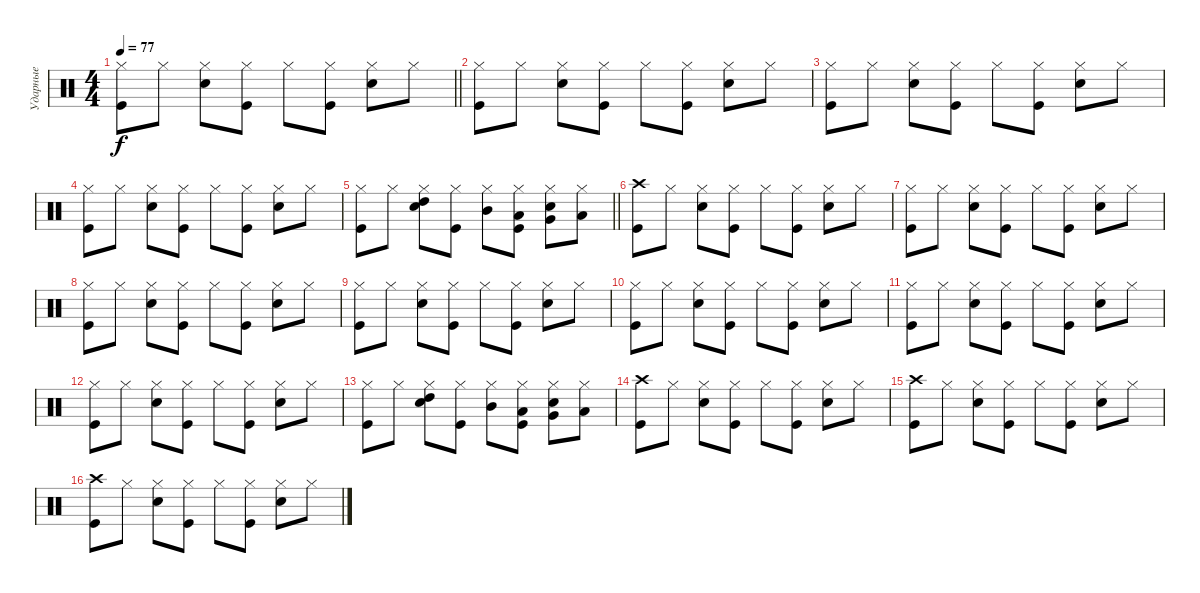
\track ("Ударные" "Ударные") {solo instrument percussion}
\staff {score}
\articulation defaults
\ts (4 4)
\tempo 77
\clef neutral
\barLineRight lightlight
\ks c
("Kick (hit)" "Hi-Hat (closed)").8{dy f} "Hi-Hat (closed)".8 ("Snare (hit) 2" "Hi-Hat (closed)").8 ("Kick (hit)" "Hi-Hat (closed)").8 "Hi-Hat (closed)".8 ("Kick (hit)" "Hi-Hat (closed)").8 ("Snare (hit) 2" "Hi-Hat (closed)").8 "Hi-Hat (closed)".8 |
("Kick (hit)" "Hi-Hat (closed)").8 "Hi-Hat (closed)".8 ("Snare (hit) 2" "Hi-Hat (closed)").8 ("Kick (hit)" "Hi-Hat (closed)").8 "Hi-Hat (closed)".8 ("Kick (hit)" "Hi-Hat (closed)").8 ("Snare (hit) 2" "Hi-Hat (closed)").8 "Hi-Hat (closed)".8 |
("Kick (hit)" "Hi-Hat (closed)").8 "Hi-Hat (closed)".8 ("Snare (hit) 2" "Hi-Hat (closed)").8 ("Kick (hit)" "Hi-Hat (closed)").8 "Hi-Hat (closed)".8 ("Kick (hit)" "Hi-Hat (closed)").8 ("Snare (hit) 2" "Hi-Hat (closed)").8 "Hi-Hat (closed)".8 |
("Kick (hit)" "Hi-Hat (closed)").8 "Hi-Hat (closed)".8 ("Snare (hit) 2" "Hi-Hat (closed)").8 ("Kick (hit)" "Hi-Hat (closed)").8 "Hi-Hat (closed)".8 ("Kick (hit)" "Hi-Hat (closed)").8 ("Snare (hit) 2" "Hi-Hat (closed)").8 "Hi-Hat (closed)".8 |
\barLineRight lightlight
("Kick (hit)" "Hi-Hat (closed)").8 "Hi-Hat (closed)".8 ("Snare (hit) 2" "High Tom (hit)" "Hi-Hat (closed)").8 ("Kick (hit)" "Hi-Hat (closed)").8 ("Mid Tom (hit)" "Hi-Hat (closed)").8 ("Kick (hit)" "Low Tom (hit)" "Hi-Hat (closed)").8 ("Snare (hit) 2" "Very Low Tom (hit)" "Hi-Hat (closed)").8 ("Low Floor Tom (hit)" "Hi-Hat (closed)").8 |
("Kick (hit)" "Crash high (hit)").8 "Hi-Hat (closed)".8 ("Snare (hit) 2" "Hi-Hat (closed)").8 ("Kick (hit)" "Hi-Hat (closed)").8 "Hi-Hat (closed)".8 ("Kick (hit)" "Hi-Hat (closed)").8 ("Snare (hit) 2" "Hi-Hat (closed)").8 "Hi-Hat (closed)".8 |
("Kick (hit)" "Hi-Hat (closed)").8 "Hi-Hat (closed)".8 ("Snare (hit) 2" "Hi-Hat (closed)").8 ("Kick (hit)" "Hi-Hat (closed)").8 "Hi-Hat (closed)".8 ("Kick (hit)" "Hi-Hat (closed)").8 ("Snare (hit) 2" "Hi-Hat (closed)").8 "Hi-Hat (closed)".8 |
("Kick (hit)" "Hi-Hat (closed)").8 "Hi-Hat (closed)".8 ("Snare (hit) 2" "Hi-Hat (closed)").8 ("Kick (hit)" "Hi-Hat (closed)").8 "Hi-Hat (closed)".8 ("Kick (hit)" "Hi-Hat (closed)").8 ("Snare (hit) 2" "Hi-Hat (closed)").8 "Hi-Hat (closed)".8 |
("Kick (hit)" "Hi-Hat (closed)").8 "Hi-Hat (closed)".8 ("Snare (hit) 2" "Hi-Hat (closed)").8 ("Kick (hit)" "Hi-Hat (closed)").8 "Hi-Hat (closed)".8 ("Kick (hit)" "Hi-Hat (closed)").8 ("Snare (hit) 2" "Hi-Hat (closed)").8 "Hi-Hat (closed)".8 |
("Kick (hit)" "Hi-Hat (closed)").8 "Hi-Hat (closed)".8 ("Snare (hit) 2" "Hi-Hat (closed)").8 ("Kick (hit)" "Hi-Hat (closed)").8 "Hi-Hat (closed)".8 ("Kick (hit)" "Hi-Hat (closed)").8 ("Snare (hit) 2" "Hi-Hat (closed)").8 "Hi-Hat (closed)".8 |
("Kick (hit)" "Hi-Hat (closed)").8 "Hi-Hat (closed)".8 ("Snare (hit) 2" "Hi-Hat (closed)").8 ("Kick (hit)" "Hi-Hat (closed)").8 "Hi-Hat (closed)".8 ("Kick (hit)" "Hi-Hat (closed)").8 ("Snare (hit) 2" "Hi-Hat (closed)").8 "Hi-Hat (closed)".8 |
("Kick (hit)" "Hi-Hat (closed)").8 "Hi-Hat (closed)".8 ("Snare (hit) 2" "Hi-Hat (closed)").8 ("Kick (hit)" "Hi-Hat (closed)").8 "Hi-Hat (closed)".8 ("Kick (hit)" "Hi-Hat (closed)").8 ("Snare (hit) 2" "Hi-Hat (closed)").8 "Hi-Hat (closed)".8 |
("Kick (hit)" "Hi-Hat (closed)").8 "Hi-Hat (closed)".8 ("Snare (hit) 2" "High Tom (hit)" "Hi-Hat (closed)").8 ("Kick (hit)" "Hi-Hat (closed)").8 ("Mid Tom (hit)" "Hi-Hat (closed)").8 ("Kick (hit)" "Low Tom (hit)" "Hi-Hat (closed)").8 ("Snare (hit) 2" "Very Low Tom (hit)" "Hi-Hat (closed)").8 ("Low Floor Tom (hit)" "Hi-Hat (closed)").8 |
("Kick (hit)" "Crash high (hit)").8 "Hi-Hat (closed)".8 ("Snare (hit) 2" "Hi-Hat (closed)").8 ("Kick (hit)" "Hi-Hat (closed)").8 "Hi-Hat (closed)".8 ("Kick (hit)" "Hi-Hat (closed)").8 ("Snare (hit) 2" "Hi-Hat (closed)").8 "Hi-Hat (closed)".8 |
("Kick (hit)" "Crash high (hit)").8 "Hi-Hat (closed)".8 ("Snare (hit) 2" "Hi-Hat (closed)").8 ("Kick (hit)" "Hi-Hat (closed)").8 "Hi-Hat (closed)".8 ("Kick (hit)" "Hi-Hat (closed)").8 ("Snare (hit) 2" "Hi-Hat (closed)").8 "Hi-Hat (closed)".8 |
("Kick (hit)" "Crash high (hit)").8 "Hi-Hat (closed)".8 ("Snare (hit) 2" "Hi-Hat (closed)").8 ("Kick (hit)" "Hi-Hat (closed)").8 "Hi-Hat (closed)".8 ("Kick (hit)" "Hi-Hat (closed)").8 ("Snare (hit) 2" "Hi-Hat (closed)").8 "Hi-Hat (closed)".8
